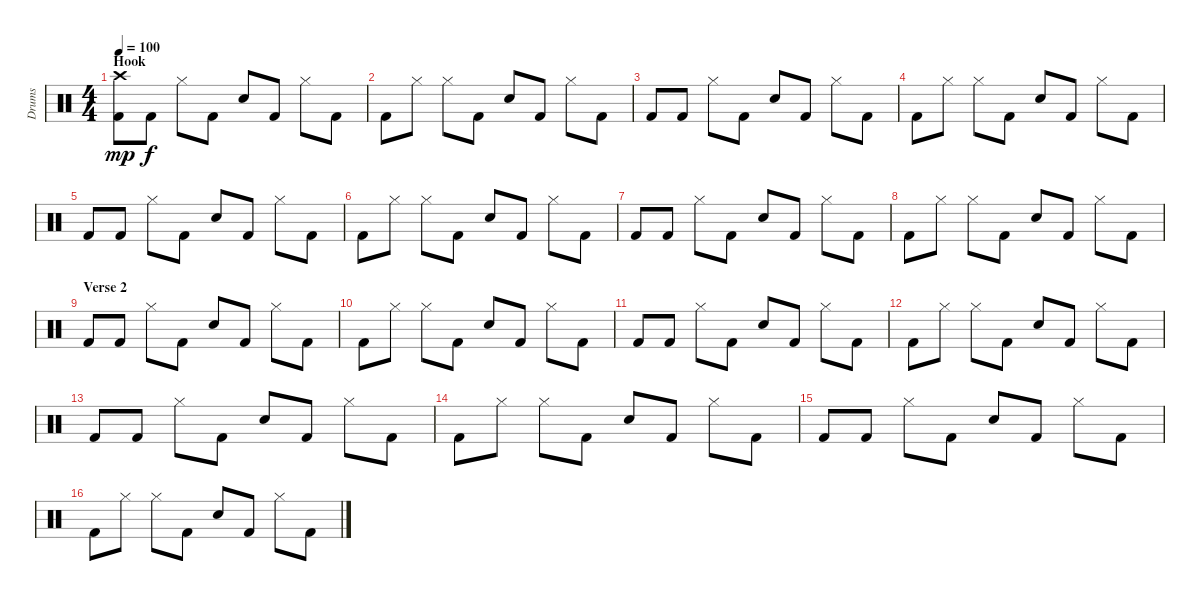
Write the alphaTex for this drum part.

\track ("Drums" "Drums") {instrument percussion}
\staff {score}
\articulation defaults
\ts (4 4)
\section ("" "Hook")
\tempo 100
\clef neutral
\ks c
("Crash high (hit)" "Kick (hit) 2").8{dy mp} "Kick (hit) 2".8{dy f} "Hi-Hat (closed)".8 "Kick (hit) 2".8 "Snare (hit) 2".8 "Kick (hit) 2".8 "Hi-Hat (closed)".8 "Kick (hit) 2".8 |
"Kick (hit) 2".8 "Hi-Hat (closed)".8 "Hi-Hat (closed)".8 "Kick (hit) 2".8 "Snare (hit) 2".8 "Kick (hit) 2".8 "Hi-Hat (closed)".8 "Kick (hit) 2".8 |
"Kick (hit) 2".8 "Kick (hit) 2".8 "Hi-Hat (closed)".8 "Kick (hit) 2".8 "Snare (hit) 2".8 "Kick (hit) 2".8 "Hi-Hat (closed)".8 "Kick (hit) 2".8 |
"Kick (hit) 2".8 "Hi-Hat (closed)".8 "Hi-Hat (closed)".8 "Kick (hit) 2".8 "Snare (hit) 2".8 "Kick (hit) 2".8 "Hi-Hat (closed)".8 "Kick (hit) 2".8 |
"Kick (hit) 2".8 "Kick (hit) 2".8 "Hi-Hat (closed)".8 "Kick (hit) 2".8 "Snare (hit) 2".8 "Kick (hit) 2".8 "Hi-Hat (closed)".8 "Kick (hit) 2".8 |
"Kick (hit) 2".8 "Hi-Hat (closed)".8 "Hi-Hat (closed)".8 "Kick (hit) 2".8 "Snare (hit) 2".8 "Kick (hit) 2".8 "Hi-Hat (closed)".8 "Kick (hit) 2".8 |
"Kick (hit) 2".8 "Kick (hit) 2".8 "Hi-Hat (closed)".8 "Kick (hit) 2".8 "Snare (hit) 2".8 "Kick (hit) 2".8 "Hi-Hat (closed)".8 "Kick (hit) 2".8 |
"Kick (hit) 2".8 "Hi-Hat (closed)".8 "Hi-Hat (closed)".8 "Kick (hit) 2".8 "Snare (hit) 2".8 "Kick (hit) 2".8 "Hi-Hat (closed)".8 "Kick (hit) 2".8 |
\section ("" "Verse 2")
"Kick (hit) 2".8 "Kick (hit) 2".8 "Hi-Hat (closed)".8 "Kick (hit) 2".8 "Snare (hit) 2".8 "Kick (hit) 2".8 "Hi-Hat (closed)".8 "Kick (hit) 2".8 |
"Kick (hit) 2".8 "Hi-Hat (closed)".8 "Hi-Hat (closed)".8 "Kick (hit) 2".8 "Snare (hit) 2".8 "Kick (hit) 2".8 "Hi-Hat (closed)".8 "Kick (hit) 2".8 |
"Kick (hit) 2".8 "Kick (hit) 2".8 "Hi-Hat (closed)".8 "Kick (hit) 2".8 "Snare (hit) 2".8 "Kick (hit) 2".8 "Hi-Hat (closed)".8 "Kick (hit) 2".8 |
"Kick (hit) 2".8 "Hi-Hat (closed)".8 "Hi-Hat (closed)".8 "Kick (hit) 2".8 "Snare (hit) 2".8 "Kick (hit) 2".8 "Hi-Hat (closed)".8 "Kick (hit) 2".8 |
"Kick (hit) 2".8 "Kick (hit) 2".8 "Hi-Hat (closed)".8 "Kick (hit) 2".8 "Snare (hit) 2".8 "Kick (hit) 2".8 "Hi-Hat (closed)".8 "Kick (hit) 2".8 |
"Kick (hit) 2".8 "Hi-Hat (closed)".8 "Hi-Hat (closed)".8 "Kick (hit) 2".8 "Snare (hit) 2".8 "Kick (hit) 2".8 "Hi-Hat (closed)".8 "Kick (hit) 2".8 |
"Kick (hit) 2".8 "Kick (hit) 2".8 "Hi-Hat (closed)".8 "Kick (hit) 2".8 "Snare (hit) 2".8 "Kick (hit) 2".8 "Hi-Hat (closed)".8 "Kick (hit) 2".8 |
"Kick (hit) 2".8 "Hi-Hat (closed)".8 "Hi-Hat (closed)".8 "Kick (hit) 2".8 "Snare (hit) 2".8 "Kick (hit) 2".8 "Hi-Hat (closed)".8 "Kick (hit) 2".8
